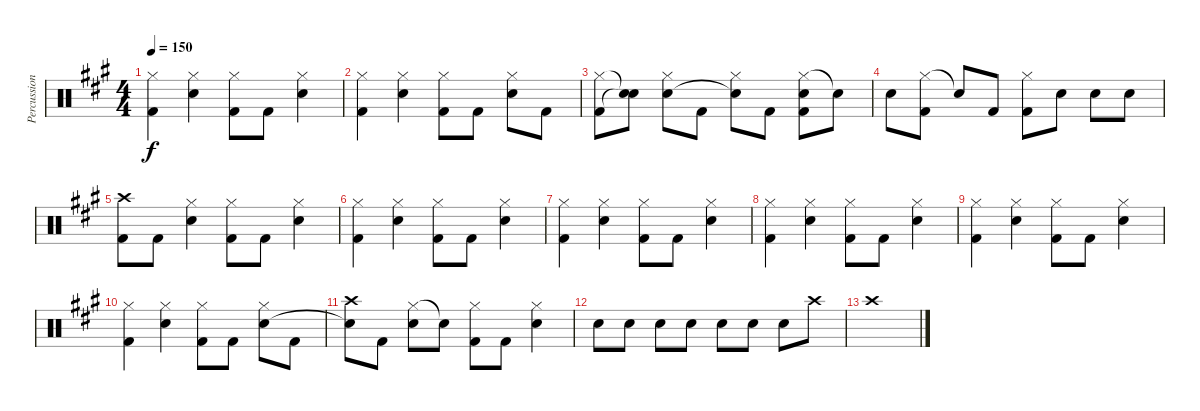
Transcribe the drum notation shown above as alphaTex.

\track ("Percussion" "Percussion") {instrument percussion}
\staff {score}
\articulation defaults
\ts (4 4)
\tempo 150
\clef neutral
\ks f#minor
("Hi-Hat (closed)" "Kick (hit) 2").4{dy f} ("Hi-Hat (closed)" "Snare (hit) 2").4 ("Hi-Hat (closed)" "Kick (hit) 2").8 "Kick (hit) 2".8 ("Hi-Hat (closed)" "Snare (hit) 2").4 |
("Hi-Hat (closed)" "Kick (hit) 2").4 ("Hi-Hat (closed)" "Snare (hit) 2").4 ("Hi-Hat (closed)" "Kick (hit) 2").8 "Kick (hit) 2".8 ("Hi-Hat (closed)" "Snare (hit) 2").8 "Kick (hit) 2".8 |
("Hi-Hat (closed)" "Kick (hit) 2").8 ("Snare (hit)"{t} "Snare (hit)"{t}).8 ("Hi-Hat (closed)" "Snare (hit) 2").8 "Kick (hit) 2".8 ("Hi-Hat (closed)" "Snare (hit)"{t}).8 "Kick (hit) 2".8 ("Hi-Hat (closed)" "Snare (hit) 2" "Kick (hit) 2").8 "Snare (hit)"{t}.8 |
"Snare (hit) 2".8 ("Hi-Hat (closed)" "Kick (hit) 2").8 "Snare (hit)"{t}.8 "Kick (hit) 2".8 ("Hi-Hat (closed)" "Kick (hit) 2").8 "Snare (hit) 2".8 "Snare (hit) 2".8 "Snare (hit) 2".8 |
("Crash high (hit)" "Kick (hit) 2").8 "Kick (hit) 2".8 ("Hi-Hat (closed)" "Snare (hit) 2").4 ("Hi-Hat (closed)" "Kick (hit) 2").8 "Kick (hit) 2".8 ("Hi-Hat (closed)" "Snare (hit) 2").4 |
("Hi-Hat (closed)" "Kick (hit) 2").4 ("Hi-Hat (closed)" "Snare (hit) 2").4 ("Hi-Hat (closed)" "Kick (hit) 2").8 "Kick (hit) 2".8 ("Hi-Hat (closed)" "Snare (hit) 2").4 |
("Hi-Hat (closed)" "Kick (hit) 2").4 ("Hi-Hat (closed)" "Snare (hit) 2").4 ("Hi-Hat (closed)" "Kick (hit) 2").8 "Kick (hit) 2".8 ("Hi-Hat (closed)" "Snare (hit) 2").4 |
("Hi-Hat (closed)" "Kick (hit) 2").4 ("Hi-Hat (closed)" "Snare (hit) 2").4 ("Hi-Hat (closed)" "Kick (hit) 2").8 "Kick (hit) 2".8 ("Hi-Hat (closed)" "Snare (hit) 2").4 |
("Hi-Hat (closed)" "Kick (hit) 2").4 ("Hi-Hat (closed)" "Snare (hit) 2").4 ("Hi-Hat (closed)" "Kick (hit) 2").8 "Kick (hit) 2".8 ("Hi-Hat (closed)" "Snare (hit) 2").4 |
("Hi-Hat (closed)" "Kick (hit) 2").4 ("Hi-Hat (closed)" "Snare (hit) 2").4 ("Hi-Hat (closed)" "Kick (hit) 2").8 "Kick (hit) 2".8 ("Hi-Hat (closed)" "Snare (hit) 2").8 "Kick (hit) 2".8 |
("Crash high (hit)" "Snare (hit)"{t}).8 "Kick (hit) 2".8 ("Hi-Hat (closed)" "Snare (hit) 2").8 "Snare (hit)"{t}.8 ("Hi-Hat (closed)" "Kick (hit) 2").8 "Kick (hit) 2".8 ("Hi-Hat (closed)" "Snare (hit) 2").4 |
"Snare (hit) 2".8 "Snare (hit) 2".8 "Snare (hit) 2".8 "Snare (hit) 2".8 "Snare (hit) 2".8 "Snare (hit) 2".8 "Snare (hit) 2".8 "Crash high (hit)".8 |
"Crash high (hit)".1
